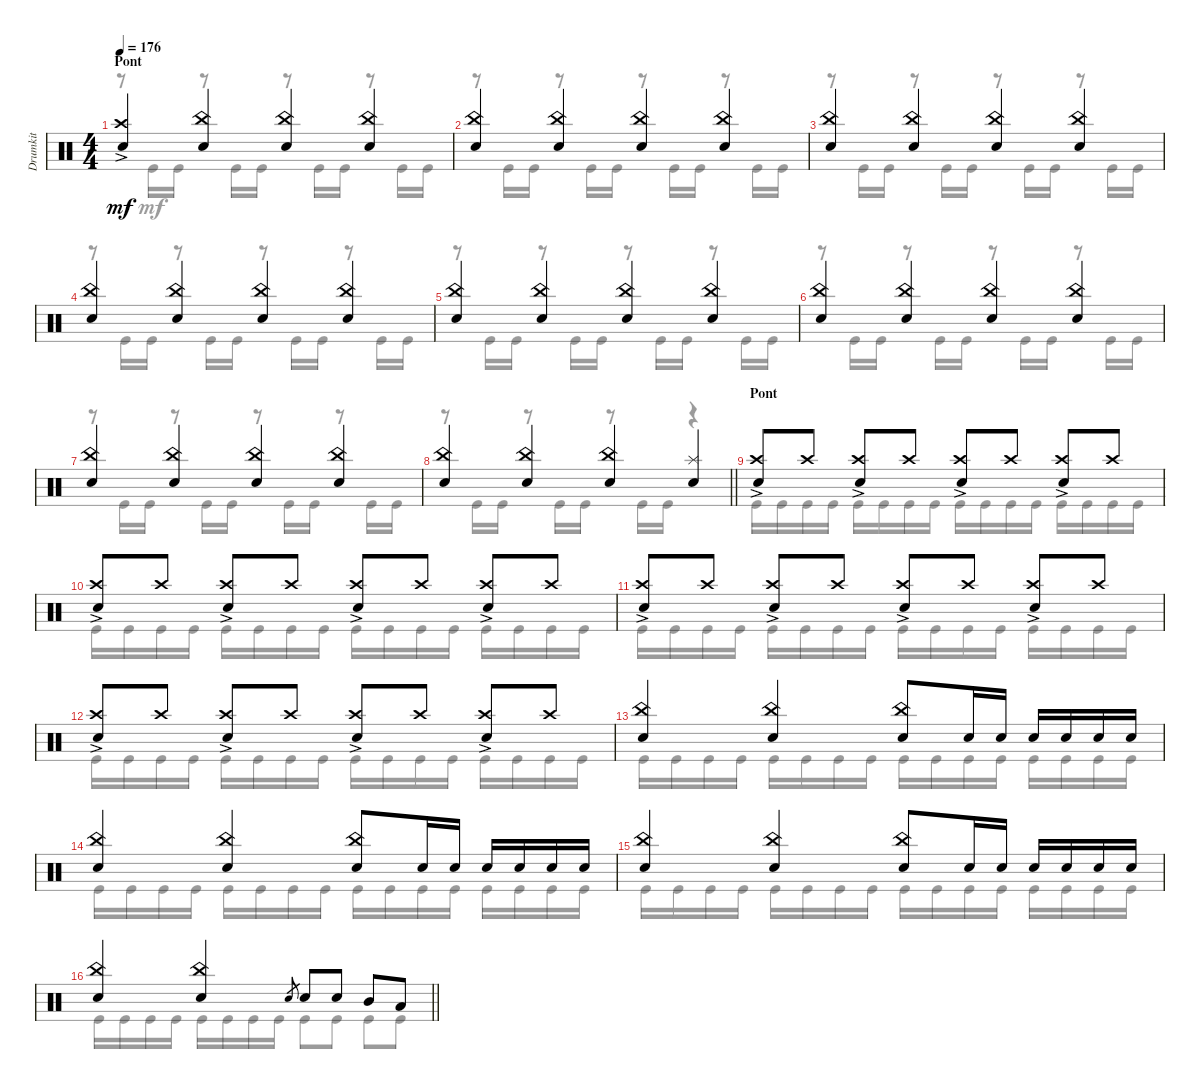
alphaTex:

\track ("Drumkit" "Drumkit") {instrument percussion}
\staff {score}
\articulation defaults
\voice
\ts (4 4)
\section ("" "Pont")
\tempo 176
\clef neutral
\ks c
("Snare (hit) 2" "Crash high (hit)"{ac}).4{dy mf} ("Snare (hit) 2" "China (hit)").4 ("Snare (hit) 2" "China (hit)").4 ("Snare (hit) 2" "China (hit)").4 |
("Snare (hit) 2" "China (hit)").4 ("Snare (hit) 2" "China (hit)").4 ("Snare (hit) 2" "China (hit)").4 ("Snare (hit) 2" "China (hit)").4 |
("Snare (hit) 2" "China (hit)").4 ("Snare (hit) 2" "China (hit)").4 ("Snare (hit) 2" "China (hit)").4 ("Snare (hit) 2" "China (hit)").4 |
("Snare (hit) 2" "China (hit)").4 ("Snare (hit) 2" "China (hit)").4 ("Snare (hit) 2" "China (hit)").4 ("Snare (hit) 2" "China (hit)").4 |
("Snare (hit) 2" "China (hit)").4 ("Snare (hit) 2" "China (hit)").4 ("Snare (hit) 2" "China (hit)").4 ("Snare (hit) 2" "China (hit)").4 |
("Snare (hit) 2" "China (hit)").4 ("Snare (hit) 2" "China (hit)").4 ("Snare (hit) 2" "China (hit)").4 ("Snare (hit) 2" "China (hit)").4 |
("Snare (hit) 2" "China (hit)").4 ("Snare (hit) 2" "China (hit)").4 ("Snare (hit) 2" "China (hit)").4 ("Snare (hit) 2" "China (hit)").4 |
\barLineRight lightlight
("Snare (hit) 2" "China (hit)").4 ("Snare (hit) 2" "China (hit)").4 ("Snare (hit) 2" "China (hit)").4 ("Snare (hit) 2" "Splash (hit)").4 |
\section ("" "Pont")
("Crash high (hit)"{ac} "Snare (hit) 2").8 "Crash high (hit)".8 ("Crash high (hit)"{ac} "Snare (hit) 2").8 "Crash high (hit)".8 ("Crash high (hit)"{ac} "Snare (hit) 2").8 "Crash high (hit)".8 ("Crash high (hit)"{ac} "Snare (hit) 2").8 "Crash high (hit)".8 |
("Crash high (hit)"{ac} "Snare (hit) 2").8 "Crash high (hit)".8 ("Crash high (hit)"{ac} "Snare (hit) 2").8 "Crash high (hit)".8 ("Crash high (hit)"{ac} "Snare (hit) 2").8 "Crash high (hit)".8 ("Crash high (hit)"{ac} "Snare (hit) 2").8 "Crash high (hit)".8 |
("Crash high (hit)"{ac} "Snare (hit) 2").8 "Crash high (hit)".8 ("Crash high (hit)"{ac} "Snare (hit) 2").8 "Crash high (hit)".8 ("Crash high (hit)"{ac} "Snare (hit) 2").8 "Crash high (hit)".8 ("Crash high (hit)"{ac} "Snare (hit) 2").8 "Crash high (hit)".8 |
("Crash high (hit)"{ac} "Snare (hit) 2").8 "Crash high (hit)".8 ("Crash high (hit)"{ac} "Snare (hit) 2").8 "Crash high (hit)".8 ("Crash high (hit)"{ac} "Snare (hit) 2").8 "Crash high (hit)".8 ("Crash high (hit)"{ac} "Snare (hit) 2").8 "Crash high (hit)".8 |
("Snare (hit) 2" "China (hit)").4 ("Snare (hit) 2" "China (hit)").4 ("Snare (hit) 2" "China (hit)").8 "Snare (hit) 2".16 "Snare (hit) 2".16 "Snare (hit) 2".16 "Snare (hit) 2".16 "Snare (hit) 2".16 "Snare (hit) 2".16 |
("Snare (hit) 2" "China (hit)").4 ("Snare (hit) 2" "China (hit)").4 ("Snare (hit) 2" "China (hit)").8 "Snare (hit) 2".16 "Snare (hit) 2".16 "Snare (hit) 2".16 "Snare (hit) 2".16 "Snare (hit) 2".16 "Snare (hit) 2".16 |
("Snare (hit) 2" "China (hit)").4 ("Snare (hit) 2" "China (hit)").4 ("Snare (hit) 2" "China (hit)").8 "Snare (hit) 2".16 "Snare (hit) 2".16 "Snare (hit) 2".16 "Snare (hit) 2".16 "Snare (hit) 2".16 "Snare (hit) 2".16 |
\barLineRight lightlight
("Snare (hit) 2" "China (hit)").4 ("Snare (hit) 2" "China (hit)").4 "Snare (hit)".8{gr} "Snare (hit) 2".8 "Snare (hit) 2".8 "Mid Tom (hit)".8 "Low Tom (hit)".8
\voice
\clef neutral
\ottava regular
\simile none
\ks c
r.8{dy mf} "Kick (hit)".16 "Kick (hit)".16 r.8 "Kick (hit)".16 "Kick (hit)".16 r.8 "Kick (hit)".16 "Kick (hit)".16 r.8 "Kick (hit)".16 "Kick (hit)".16 |
r.8 "Kick (hit)".16 "Kick (hit)".16 r.8 "Kick (hit)".16 "Kick (hit)".16 r.8 "Kick (hit)".16 "Kick (hit)".16 r.8 "Kick (hit)".16 "Kick (hit)".16 |
r.8 "Kick (hit)".16 "Kick (hit)".16 r.8 "Kick (hit)".16 "Kick (hit)".16 r.8 "Kick (hit)".16 "Kick (hit)".16 r.8 "Kick (hit)".16 "Kick (hit)".16 |
r.8 "Kick (hit)".16 "Kick (hit)".16 r.8 "Kick (hit)".16 "Kick (hit)".16 r.8 "Kick (hit)".16 "Kick (hit)".16 r.8 "Kick (hit)".16 "Kick (hit)".16 |
r.8 "Kick (hit)".16 "Kick (hit)".16 r.8 "Kick (hit)".16 "Kick (hit)".16 r.8 "Kick (hit)".16 "Kick (hit)".16 r.8 "Kick (hit)".16 "Kick (hit)".16 |
r.8 "Kick (hit)".16 "Kick (hit)".16 r.8 "Kick (hit)".16 "Kick (hit)".16 r.8 "Kick (hit)".16 "Kick (hit)".16 r.8 "Kick (hit)".16 "Kick (hit)".16 |
r.8 "Kick (hit)".16 "Kick (hit)".16 r.8 "Kick (hit)".16 "Kick (hit)".16 r.8 "Kick (hit)".16 "Kick (hit)".16 r.8 "Kick (hit)".16 "Kick (hit)".16 |
\barLineRight lightlight
r.8 "Kick (hit)".16 "Kick (hit)".16 r.8 "Kick (hit)".16 "Kick (hit)".16 r.8 "Kick (hit)".16 "Kick (hit)".16 r.4 |
"Kick (hit)".16 "Kick (hit)".16 "Kick (hit)".16 "Kick (hit)".16 "Kick (hit)".16 "Kick (hit)".16 "Kick (hit)".16 "Kick (hit)".16 "Kick (hit)".16 "Kick (hit)".16 "Kick (hit)".16 "Kick (hit)".16 "Kick (hit)".16 "Kick (hit)".16 "Kick (hit)".16 "Kick (hit)".16 |
"Kick (hit)".16 "Kick (hit)".16 "Kick (hit)".16 "Kick (hit)".16 "Kick (hit)".16 "Kick (hit)".16 "Kick (hit)".16 "Kick (hit)".16 "Kick (hit)".16 "Kick (hit)".16 "Kick (hit)".16 "Kick (hit)".16 "Kick (hit)".16 "Kick (hit)".16 "Kick (hit)".16 "Kick (hit)".16 |
"Kick (hit)".16 "Kick (hit)".16 "Kick (hit)".16 "Kick (hit)".16 "Kick (hit)".16 "Kick (hit)".16 "Kick (hit)".16 "Kick (hit)".16 "Kick (hit)".16 "Kick (hit)".16 "Kick (hit)".16 "Kick (hit)".16 "Kick (hit)".16 "Kick (hit)".16 "Kick (hit)".16 "Kick (hit)".16 |
"Kick (hit)".16 "Kick (hit)".16 "Kick (hit)".16 "Kick (hit)".16 "Kick (hit)".16 "Kick (hit)".16 "Kick (hit)".16 "Kick (hit)".16 "Kick (hit)".16 "Kick (hit)".16 "Kick (hit)".16 "Kick (hit)".16 "Kick (hit)".16 "Kick (hit)".16 "Kick (hit)".16 "Kick (hit)".16 |
"Kick (hit)".16 "Kick (hit)".16 "Kick (hit)".16 "Kick (hit)".16 "Kick (hit)".16 "Kick (hit)".16 "Kick (hit)".16 "Kick (hit)".16 "Kick (hit)".16 "Kick (hit)".16 "Kick (hit)".16 "Kick (hit)".16 "Kick (hit)".16 "Kick (hit)".16 "Kick (hit)".16 "Kick (hit)".16 |
"Kick (hit)".16 "Kick (hit)".16 "Kick (hit)".16 "Kick (hit)".16 "Kick (hit)".16 "Kick (hit)".16 "Kick (hit)".16 "Kick (hit)".16 "Kick (hit)".16 "Kick (hit)".16 "Kick (hit)".16 "Kick (hit)".16 "Kick (hit)".16 "Kick (hit)".16 "Kick (hit)".16 "Kick (hit)".16 |
"Kick (hit)".16 "Kick (hit)".16 "Kick (hit)".16 "Kick (hit)".16 "Kick (hit)".16 "Kick (hit)".16 "Kick (hit)".16 "Kick (hit)".16 "Kick (hit)".16 "Kick (hit)".16 "Kick (hit)".16 "Kick (hit)".16 "Kick (hit)".16 "Kick (hit)".16 "Kick (hit)".16 "Kick (hit)".16 |
\barLineRight lightlight "Kick (hit)".16 "Kick (hit)".16 "Kick (hit)".16 "Kick (hit)".16 "Kick (hit)".16 "Kick (hit)".16 "Kick (hit)".16 "Kick (hit)".16 "Kick (hit)".8 "Kick (hit)".8 "Kick (hit)".8 "Kick (hit)".8
